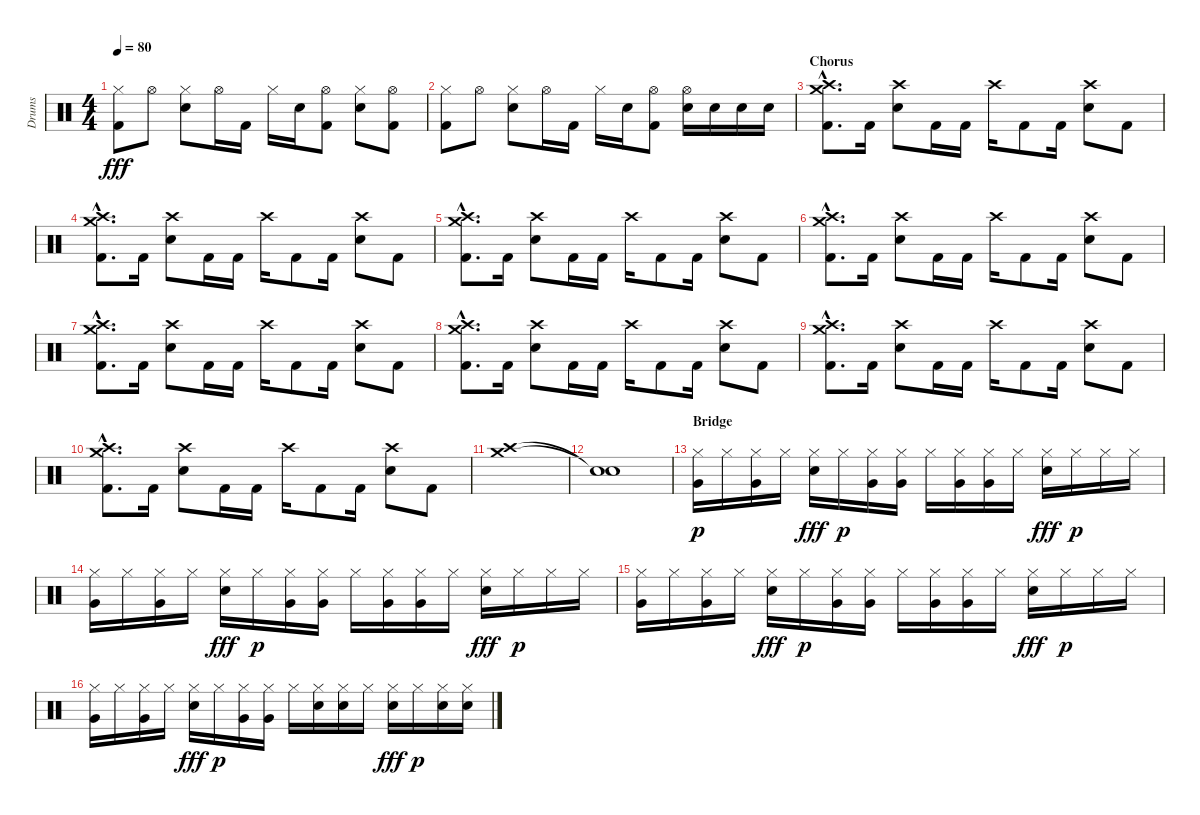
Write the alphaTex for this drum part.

\track ("Drums" "Drums") {instrument percussion}
\staff {score}
\articulation defaults
\ts (4 4)
\tempo 80
\clef neutral
\ks c
("Hi-Hat (closed)" "Kick (hit) 2").8{dy fff} "Hi-Hat (open)".8 ("Hi-Hat (closed)" "Electric Snare (hit)").8 "Hi-Hat (open)".16 "Kick (hit) 2".16 "Hi-Hat (closed)".16 "Electric Snare (hit)".16 ("Hi-Hat (open)" "Kick (hit) 2").8 ("Hi-Hat (closed)" "Electric Snare (hit)").8 ("Hi-Hat (open)" "Kick (hit) 2").8 |
("Hi-Hat (closed)" "Kick (hit) 2").8 "Hi-Hat (open)".8 ("Hi-Hat (closed)" "Electric Snare (hit)").8 "Hi-Hat (open)".16 "Kick (hit) 2".16 "Hi-Hat (closed)".16 "Electric Snare (hit)".16 ("Hi-Hat (open)" "Kick (hit) 2").8 ("Hi-Hat (open)" "Electric Snare (hit)").16 "Electric Snare (hit)".16 "Electric Snare (hit)".16 "Electric Snare (hit)".16 |
\section ("" "Chorus")
("Crash high (hit)"{hac} "Crash medium (hit)"{hac} "Kick (hit) 2"{hac}).8{d} "Kick (hit) 2".16 ("Crash high (hit)" "Electric Snare (hit)").8 "Kick (hit) 2".16 "Kick (hit) 2".16 "Crash high (hit)".16 "Kick (hit) 2".8 "Kick (hit) 2".16 ("Crash high (hit)" "Electric Snare (hit)").8 "Kick (hit) 2".8 |
("Crash high (hit)"{hac} "Crash medium (hit)"{hac} "Kick (hit) 2"{hac}).8{d} "Kick (hit) 2".16 ("Crash high (hit)" "Electric Snare (hit)").8 "Kick (hit) 2".16 "Kick (hit) 2".16 "Crash high (hit)".16 "Kick (hit) 2".8 "Kick (hit) 2".16 ("Crash high (hit)" "Electric Snare (hit)").8 "Kick (hit) 2".8 |
("Crash high (hit)"{hac} "Crash medium (hit)"{hac} "Kick (hit) 2"{hac}).8{d} "Kick (hit) 2".16 ("Crash high (hit)" "Electric Snare (hit)").8 "Kick (hit) 2".16 "Kick (hit) 2".16 "Crash high (hit)".16 "Kick (hit) 2".8 "Kick (hit) 2".16 ("Crash high (hit)" "Electric Snare (hit)").8 "Kick (hit) 2".8 |
("Crash high (hit)"{hac} "Crash medium (hit)"{hac} "Kick (hit) 2"{hac}).8{d} "Kick (hit) 2".16 ("Crash high (hit)" "Electric Snare (hit)").8 "Kick (hit) 2".16 "Kick (hit) 2".16 "Crash high (hit)".16 "Kick (hit) 2".8 "Kick (hit) 2".16 ("Crash high (hit)" "Electric Snare (hit)").8 "Kick (hit) 2".8 |
("Crash high (hit)"{hac} "Crash medium (hit)"{hac} "Kick (hit) 2"{hac}).8{d} "Kick (hit) 2".16 ("Crash high (hit)" "Electric Snare (hit)").8 "Kick (hit) 2".16 "Kick (hit) 2".16 "Crash high (hit)".16 "Kick (hit) 2".8 "Kick (hit) 2".16 ("Crash high (hit)" "Electric Snare (hit)").8 "Kick (hit) 2".8 |
("Crash high (hit)"{hac} "Crash medium (hit)"{hac} "Kick (hit) 2"{hac}).8{d} "Kick (hit) 2".16 ("Crash high (hit)" "Electric Snare (hit)").8 "Kick (hit) 2".16 "Kick (hit) 2".16 "Crash high (hit)".16 "Kick (hit) 2".8 "Kick (hit) 2".16 ("Crash high (hit)" "Electric Snare (hit)").8 "Kick (hit) 2".8 |
("Crash high (hit)"{hac} "Crash medium (hit)"{hac} "Kick (hit) 2"{hac}).8{d} "Kick (hit) 2".16 ("Crash high (hit)" "Electric Snare (hit)").8 "Kick (hit) 2".16 "Kick (hit) 2".16 "Crash high (hit)".16 "Kick (hit) 2".8 "Kick (hit) 2".16 ("Crash high (hit)" "Electric Snare (hit)").8 "Kick (hit) 2".8 |
("Crash high (hit)"{hac} "Crash medium (hit)"{hac} "Kick (hit) 2"{hac}).8{d} "Kick (hit) 2".16 ("Crash high (hit)" "Electric Snare (hit)").8 "Kick (hit) 2".16 "Kick (hit) 2".16 "Crash high (hit)".16 "Kick (hit) 2".8 "Kick (hit) 2".16 ("Crash high (hit)" "Electric Snare (hit)").8 "Kick (hit) 2".8 |
("Crash high (hit)" "Crash medium (hit)").1 |
("Snare (hit)"{t} "Snare (hit)"{t}).1 |
\section ("" "Bridge")
("Very Low Tom (hit)" "Hi-Hat (closed)").16{dy p} "Hi-Hat (closed)".16 ("Very Low Tom (hit)" "Hi-Hat (closed)").16 "Hi-Hat (closed)".16 ("Hi-Hat (closed)" "Electric Snare (hit)").16{dy fff} "Hi-Hat (closed)".16{dy p} ("Very Low Tom (hit)" "Hi-Hat (closed)").16 ("Very Low Tom (hit)" "Hi-Hat (closed)").16 "Hi-Hat (closed)".16 ("Very Low Tom (hit)" "Hi-Hat (closed)").16 ("Very Low Tom (hit)" "Hi-Hat (closed)").16 "Hi-Hat (closed)".16 ("Hi-Hat (closed)" "Electric Snare (hit)").16{dy fff} "Hi-Hat (closed)".16{dy p} "Hi-Hat (closed)".16 "Hi-Hat (closed)".16 |
("Very Low Tom (hit)" "Hi-Hat (closed)").16 "Hi-Hat (closed)".16 ("Very Low Tom (hit)" "Hi-Hat (closed)").16 "Hi-Hat (closed)".16 ("Hi-Hat (closed)" "Electric Snare (hit)").16{dy fff} "Hi-Hat (closed)".16{dy p} ("Very Low Tom (hit)" "Hi-Hat (closed)").16 ("Very Low Tom (hit)" "Hi-Hat (closed)").16 "Hi-Hat (closed)".16 ("Very Low Tom (hit)" "Hi-Hat (closed)").16 ("Very Low Tom (hit)" "Hi-Hat (closed)").16 "Hi-Hat (closed)".16 ("Hi-Hat (closed)" "Electric Snare (hit)").16{dy fff} "Hi-Hat (closed)".16{dy p} "Hi-Hat (closed)".16 "Hi-Hat (closed)".16 |
("Very Low Tom (hit)" "Hi-Hat (closed)").16 "Hi-Hat (closed)".16 ("Very Low Tom (hit)" "Hi-Hat (closed)").16 "Hi-Hat (closed)".16 ("Hi-Hat (closed)" "Electric Snare (hit)").16{dy fff} "Hi-Hat (closed)".16{dy p} ("Very Low Tom (hit)" "Hi-Hat (closed)").16 ("Very Low Tom (hit)" "Hi-Hat (closed)").16 "Hi-Hat (closed)".16 ("Very Low Tom (hit)" "Hi-Hat (closed)").16 ("Very Low Tom (hit)" "Hi-Hat (closed)").16 "Hi-Hat (closed)".16 ("Hi-Hat (closed)" "Electric Snare (hit)").16{dy fff} "Hi-Hat (closed)".16{dy p} "Hi-Hat (closed)".16 "Hi-Hat (closed)".16 |
("Very Low Tom (hit)" "Hi-Hat (closed)").16 "Hi-Hat (closed)".16 ("Very Low Tom (hit)" "Hi-Hat (closed)").16 "Hi-Hat (closed)".16 ("Hi-Hat (closed)" "Electric Snare (hit)").16{dy fff} "Hi-Hat (closed)".16{dy p} ("Very Low Tom (hit)" "Hi-Hat (closed)").16 ("Very Low Tom (hit)" "Hi-Hat (closed)").16 "Hi-Hat (closed)".16 ("Hi-Hat (closed)" "Electric Snare (hit)").16 ("Hi-Hat (closed)" "Electric Snare (hit)").16 "Hi-Hat (closed)".16 ("Hi-Hat (closed)" "Electric Snare (hit)").16{dy fff} "Hi-Hat (closed)".16{dy p} ("Hi-Hat (closed)" "Electric Snare (hit)").16 ("Hi-Hat (closed)" "Electric Snare (hit)").16
